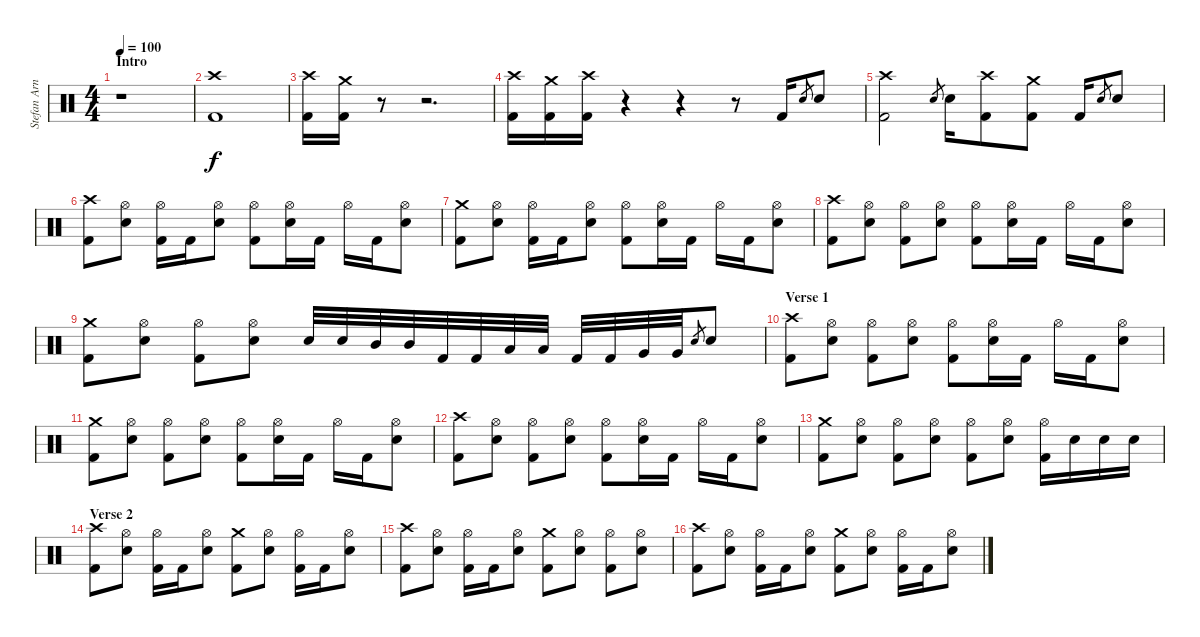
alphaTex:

\track ("Stefan Arnold" "Stefan Arn") {instrument percussion}
\staff {score}
\articulation defaults
\ts (4 4)
\section ("" "Intro")
\tempo 100
\clef neutral
\ks c
r.1{dy f} |
("Crash high (hit)" "Kick (hit) 2").1 |
("Crash high (hit)" "Kick (hit) 2").16 ("Crash medium (hit)" "Kick (hit) 2").16 r.8 r.2{d} |
("Crash high (hit)" "Kick (hit) 2").16 ("Crash medium (hit)" "Kick (hit) 2").16 ("Crash high (hit)" "Kick (hit) 2").16 r.4 r.4 r.8 "Kick (hit) 2".16 "Electric Snare (hit)".8{gr} "Electric Snare (hit)".8 |
("Crash high (hit)" "Kick (hit) 2").2 "Electric Snare (hit)".8{gr} "Electric Snare (hit)".16 ("Crash high (hit)" "Kick (hit) 2").8 ("Crash medium (hit)" "Kick (hit) 2").8 "Kick (hit) 2".16 "Electric Snare (hit)".8{gr} "Electric Snare (hit)".8 |
("Crash high (hit)" "Kick (hit) 2").8 ("Hi-Hat (open)" "Electric Snare (hit)").8 ("Hi-Hat (open)" "Kick (hit) 2").16 "Kick (hit) 2".16 ("Hi-Hat (open)" "Electric Snare (hit)").8 ("Hi-Hat (open)" "Kick (hit) 2").8 ("Hi-Hat (open)" "Electric Snare (hit)").16 "Kick (hit) 2".16 "Hi-Hat (open)".16 "Kick (hit) 2".16 ("Hi-Hat (open)" "Electric Snare (hit)").8 |
("Crash medium (hit)" "Kick (hit) 2").8 ("Hi-Hat (open)" "Electric Snare (hit)").8 ("Hi-Hat (open)" "Kick (hit) 2").16 "Kick (hit) 2".16 ("Hi-Hat (open)" "Electric Snare (hit)").8 ("Hi-Hat (open)" "Kick (hit) 2").8 ("Hi-Hat (open)" "Electric Snare (hit)").16 "Kick (hit) 2".16 "Hi-Hat (open)".16 "Kick (hit) 2".16 ("Hi-Hat (open)" "Electric Snare (hit)").8 |
("Crash high (hit)" "Kick (hit) 2").8 ("Hi-Hat (open)" "Electric Snare (hit)").8 ("Hi-Hat (open)" "Kick (hit) 2").8 ("Hi-Hat (open)" "Electric Snare (hit)").8 ("Hi-Hat (open)" "Kick (hit) 2").8 ("Hi-Hat (open)" "Electric Snare (hit)").16 "Kick (hit) 2".16 "Hi-Hat (open)".16 "Kick (hit) 2".16 ("Hi-Hat (open)" "Electric Snare (hit)").8 |
("Crash medium (hit)" "Kick (hit) 2").8 ("Hi-Hat (open)" "Electric Snare (hit)").8 ("Hi-Hat (open)" "Kick (hit) 2").8 ("Hi-Hat (open)" "Electric Snare (hit)").8 "Electric Snare (hit)".32 "Electric Snare (hit)".32 "Mid Tom (hit)".32 "Mid Tom (hit)".32 "Kick (hit) 2".32 "Kick (hit) 2".32 "Low Tom (hit)".32 "Low Tom (hit)".32 "Kick (hit) 2".32 "Kick (hit) 2".32 "Very Low Tom (hit)".32 "Very Low Tom (hit)".32 "Electric Snare (hit)".8{gr} "Electric Snare (hit)".8 |
\section ("" "Verse 1")
("Crash high (hit)" "Kick (hit) 2").8 ("Hi-Hat (open)" "Electric Snare (hit)").8 ("Hi-Hat (open)" "Kick (hit) 2").8 ("Hi-Hat (open)" "Electric Snare (hit)").8 ("Hi-Hat (open)" "Kick (hit) 2").8 ("Hi-Hat (open)" "Electric Snare (hit)").16 "Kick (hit) 2".16 "Hi-Hat (open)".16 "Kick (hit) 2".16 ("Hi-Hat (open)" "Electric Snare (hit)").8 |
("Crash medium (hit)" "Kick (hit) 2").8 ("Hi-Hat (open)" "Electric Snare (hit)").8 ("Hi-Hat (open)" "Kick (hit) 2").8 ("Hi-Hat (open)" "Electric Snare (hit)").8 ("Hi-Hat (open)" "Kick (hit) 2").8 ("Hi-Hat (open)" "Electric Snare (hit)").16 "Kick (hit) 2".16 "Hi-Hat (open)".16 "Kick (hit) 2".16 ("Hi-Hat (open)" "Electric Snare (hit)").8 |
("Crash high (hit)" "Kick (hit) 2").8 ("Hi-Hat (open)" "Electric Snare (hit)").8 ("Hi-Hat (open)" "Kick (hit) 2").8 ("Hi-Hat (open)" "Electric Snare (hit)").8 ("Hi-Hat (open)" "Kick (hit) 2").8 ("Hi-Hat (open)" "Electric Snare (hit)").16 "Kick (hit) 2".16 "Hi-Hat (open)".16 "Kick (hit) 2".16 ("Hi-Hat (open)" "Electric Snare (hit)").8 |
("Crash medium (hit)" "Kick (hit) 2").8 ("Hi-Hat (open)" "Electric Snare (hit)").8 ("Hi-Hat (open)" "Kick (hit) 2").8 ("Hi-Hat (open)" "Electric Snare (hit)").8 ("Hi-Hat (open)" "Kick (hit) 2").8 ("Hi-Hat (open)" "Electric Snare (hit)").8 ("Hi-Hat (open)" "Kick (hit) 2").16 "Electric Snare (hit)".16 "Electric Snare (hit)".16 "Electric Snare (hit)".16 |
\section ("" "Verse 2")
("Crash high (hit)" "Kick (hit) 2").8 ("Hi-Hat (open)" "Electric Snare (hit)").8 ("Hi-Hat (open)" "Kick (hit) 2").16 "Kick (hit) 2".16 ("Hi-Hat (open)" "Electric Snare (hit)").8 ("Crash medium (hit)" "Kick (hit) 2").8 ("Hi-Hat (open)" "Electric Snare (hit)").8 ("Hi-Hat (open)" "Kick (hit) 2").16 "Kick (hit) 2".16 ("Hi-Hat (open)" "Electric Snare (hit)").8 |
("Crash high (hit)" "Kick (hit) 2").8 ("Hi-Hat (open)" "Electric Snare (hit)").8 ("Hi-Hat (open)" "Kick (hit) 2").16 "Kick (hit) 2".16 ("Hi-Hat (open)" "Electric Snare (hit)").8 ("Crash medium (hit)" "Kick (hit) 2").8 ("Hi-Hat (open)" "Electric Snare (hit)").8 ("Hi-Hat (open)" "Kick (hit) 2").8 ("Hi-Hat (open)" "Electric Snare (hit)").8 |
("Crash high (hit)" "Kick (hit) 2").8 ("Hi-Hat (open)" "Electric Snare (hit)").8 ("Hi-Hat (open)" "Kick (hit) 2").16 "Kick (hit) 2".16 ("Hi-Hat (open)" "Electric Snare (hit)").8 ("Crash medium (hit)" "Kick (hit) 2").8 ("Hi-Hat (open)" "Electric Snare (hit)").8 ("Hi-Hat (open)" "Kick (hit) 2").16 "Kick (hit) 2".16 ("Hi-Hat (open)" "Electric Snare (hit)").8
